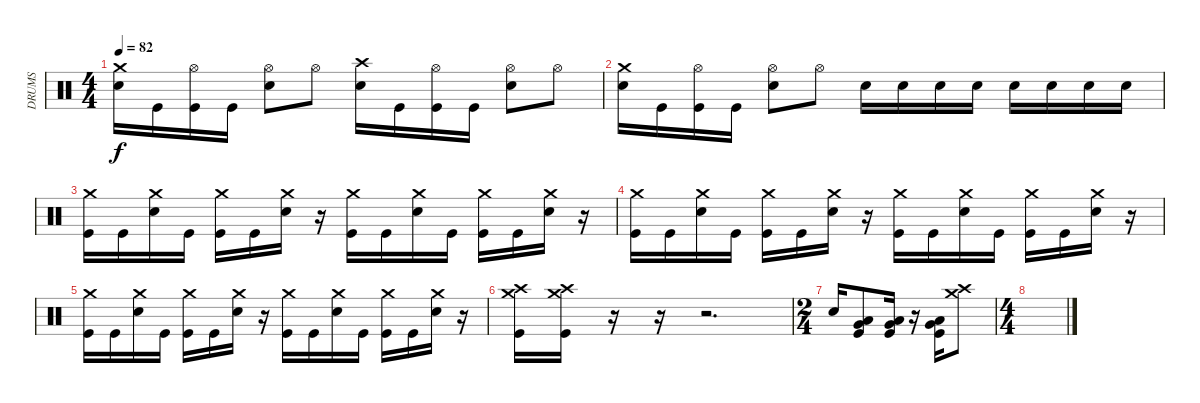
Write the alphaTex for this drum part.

\track ("DRUMS" "DRUMS") {instrument percussion}
\staff {score}
\articulation defaults
\ts (4 4)
\tempo 82
\clef neutral
\ks c
("Crash medium (hit)" "Electric Snare (hit)").16{dy f} "Kick (hit)".16 ("Hi-Hat (open)" "Kick (hit)").16 "Kick (hit)".16 ("Hi-Hat (open)" "Electric Snare (hit)").8 "Hi-Hat (open)".8 ("Crash high (hit)" "Electric Snare (hit)").16 "Kick (hit)".16 ("Hi-Hat (open)" "Kick (hit)").16 "Kick (hit)".16 ("Hi-Hat (open)" "Electric Snare (hit)").8 "Hi-Hat (open)".8 |
("Crash medium (hit)" "Electric Snare (hit)").16 "Kick (hit)".16 ("Hi-Hat (open)" "Kick (hit)").16 "Kick (hit)".16 ("Hi-Hat (open)" "Electric Snare (hit)").8 "Hi-Hat (open)".8 "Electric Snare (hit)".16 "Electric Snare (hit)".16 "Electric Snare (hit)".16 "Electric Snare (hit)".16 "Electric Snare (hit)".16 "Electric Snare (hit)".16 "Electric Snare (hit)".16 "Electric Snare (hit)".16 |
("Crash medium (hit)" "Kick (hit)").16 "Kick (hit)".16 ("Crash medium (hit)" "Electric Snare (hit)").16 "Kick (hit)".16 ("Crash medium (hit)" "Kick (hit)").16 "Kick (hit)".16 ("Crash medium (hit)" "Electric Snare (hit)").16 r.16 ("Crash medium (hit)" "Kick (hit)").16 "Kick (hit)".16 ("Crash medium (hit)" "Electric Snare (hit)").16 "Kick (hit)".16 ("Crash medium (hit)" "Kick (hit)").16 "Kick (hit)".16 ("Crash medium (hit)" "Electric Snare (hit)").16 r.16 |
("Crash medium (hit)" "Kick (hit)").16 "Kick (hit)".16 ("Crash medium (hit)" "Electric Snare (hit)").16 "Kick (hit)".16 ("Crash medium (hit)" "Kick (hit)").16 "Kick (hit)".16 ("Crash medium (hit)" "Electric Snare (hit)").16 r.16 ("Crash medium (hit)" "Kick (hit)").16 "Kick (hit)".16 ("Crash medium (hit)" "Electric Snare (hit)").16 "Kick (hit)".16 ("Crash medium (hit)" "Kick (hit)").16 "Kick (hit)".16 ("Crash medium (hit)" "Electric Snare (hit)").16 r.16 |
("Crash medium (hit)" "Kick (hit)").16 "Kick (hit)".16 ("Crash medium (hit)" "Electric Snare (hit)").16 "Kick (hit)".16 ("Crash medium (hit)" "Kick (hit)").16 "Kick (hit)".16 ("Crash medium (hit)" "Electric Snare (hit)").16 r.16 ("Crash medium (hit)" "Kick (hit)").16 "Kick (hit)".16 ("Crash medium (hit)" "Electric Snare (hit)").16 "Kick (hit)".16 ("Crash medium (hit)" "Kick (hit)").16 "Kick (hit)".16 ("Crash medium (hit)" "Electric Snare (hit)").16 r.16 |
("Crash medium (hit)" "Crash high (hit)" "Kick (hit)").16 ("Crash medium (hit)" "Crash high (hit)" "Kick (hit)").16 r.16 r.16 r.2{d} |
\ts (2 4)
"Electric Snare (hit)".16 ("Low Floor Tom (hit)" "Very Low Tom (hit)" "Kick (hit)").8 ("Low Tom (hit)" "Very Low Tom (hit)" "Kick (hit)").16 r.16 ("Very Low Tom (hit)" "Low Floor Tom (hit)" "Kick (hit)").16 ("Crash high (hit)" "Crash medium (hit)").8 |
\ts (4 4)
